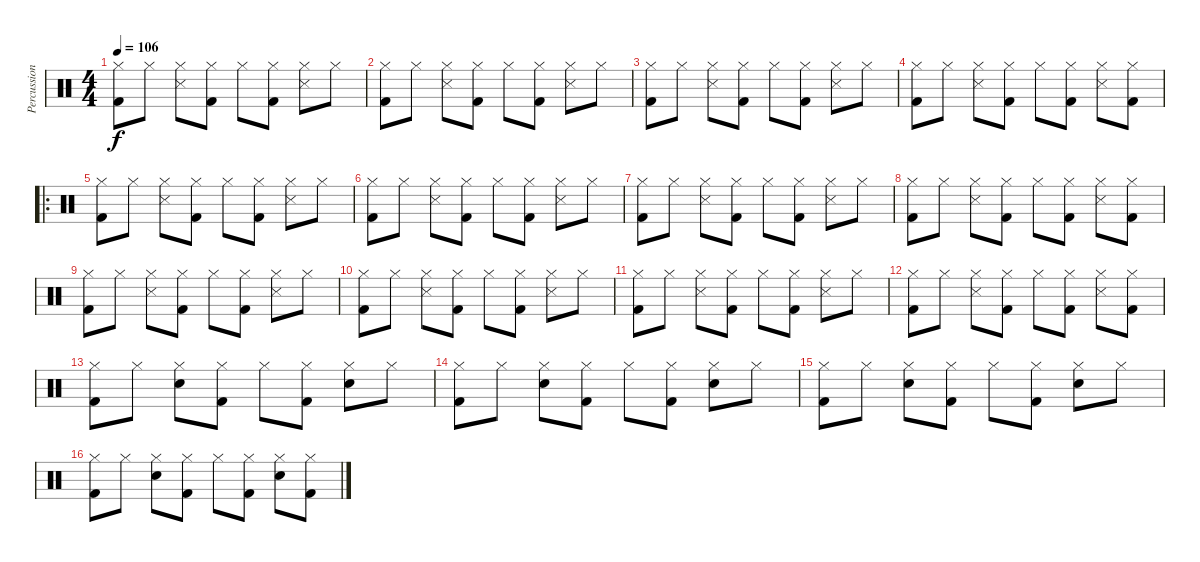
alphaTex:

\track ("Percussion" "Percussion") {instrument percussion}
\staff {score}
\articulation defaults
\ts (4 4)
\tempo 106
\clef neutral
\ks c
("Hi-Hat (closed)" "Kick (hit) 2").8{dy f} "Hi-Hat (closed)".8 ("Hi-Hat (closed)" "Snare (side stick) 3").8 ("Hi-Hat (closed)" "Kick (hit) 2").8 "Hi-Hat (closed)".8 ("Hi-Hat (closed)" "Kick (hit) 2").8 ("Hi-Hat (closed)" "Snare (side stick) 3").8 "Hi-Hat (closed)".8 |
("Hi-Hat (closed)" "Kick (hit) 2").8 "Hi-Hat (closed)".8 ("Hi-Hat (closed)" "Snare (side stick) 3").8 ("Hi-Hat (closed)" "Kick (hit) 2").8 "Hi-Hat (closed)".8 ("Hi-Hat (closed)" "Kick (hit) 2").8 ("Hi-Hat (closed)" "Snare (side stick) 3").8 "Hi-Hat (closed)".8 |
("Hi-Hat (closed)" "Kick (hit) 2").8 "Hi-Hat (closed)".8 ("Hi-Hat (closed)" "Snare (side stick) 3").8 ("Hi-Hat (closed)" "Kick (hit) 2").8 "Hi-Hat (closed)".8 ("Hi-Hat (closed)" "Kick (hit) 2").8 ("Hi-Hat (closed)" "Snare (side stick) 3").8 "Hi-Hat (closed)".8 |
("Hi-Hat (closed)" "Kick (hit) 2").8 "Hi-Hat (closed)".8 ("Hi-Hat (closed)" "Snare (side stick) 3").8 ("Hi-Hat (closed)" "Kick (hit) 2").8 "Hi-Hat (closed)".8 ("Hi-Hat (closed)" "Kick (hit) 2").8 ("Hi-Hat (closed)" "Snare (side stick) 3").8 ("Hi-Hat (closed)" "Kick (hit) 2").8 |
\ro
("Hi-Hat (closed)" "Kick (hit) 2").8 "Hi-Hat (closed)".8 ("Hi-Hat (closed)" "Snare (side stick) 3").8 ("Hi-Hat (closed)" "Kick (hit) 2").8 "Hi-Hat (closed)".8 ("Hi-Hat (closed)" "Kick (hit) 2").8 ("Hi-Hat (closed)" "Snare (side stick) 3").8 "Hi-Hat (closed)".8 |
("Hi-Hat (closed)" "Kick (hit) 2").8 "Hi-Hat (closed)".8 ("Hi-Hat (closed)" "Snare (side stick) 3").8 ("Hi-Hat (closed)" "Kick (hit) 2").8 "Hi-Hat (closed)".8 ("Hi-Hat (closed)" "Kick (hit) 2").8 ("Hi-Hat (closed)" "Snare (side stick) 3").8 "Hi-Hat (closed)".8 |
("Hi-Hat (closed)" "Kick (hit) 2").8 "Hi-Hat (closed)".8 ("Hi-Hat (closed)" "Snare (side stick) 3").8 ("Hi-Hat (closed)" "Kick (hit) 2").8 "Hi-Hat (closed)".8 ("Hi-Hat (closed)" "Kick (hit) 2").8 ("Hi-Hat (closed)" "Snare (side stick) 3").8 "Hi-Hat (closed)".8 |
("Hi-Hat (closed)" "Kick (hit) 2").8 "Hi-Hat (closed)".8 ("Hi-Hat (closed)" "Snare (side stick) 3").8 ("Hi-Hat (closed)" "Kick (hit) 2").8 "Hi-Hat (closed)".8 ("Hi-Hat (closed)" "Kick (hit) 2").8 ("Hi-Hat (closed)" "Snare (side stick) 3").8 ("Hi-Hat (closed)" "Kick (hit) 2").8 |
("Hi-Hat (closed)" "Kick (hit) 2").8 "Hi-Hat (closed)".8 ("Hi-Hat (closed)" "Snare (side stick) 3").8 ("Hi-Hat (closed)" "Kick (hit) 2").8 "Hi-Hat (closed)".8 ("Hi-Hat (closed)" "Kick (hit) 2").8 ("Hi-Hat (closed)" "Snare (side stick) 3").8 "Hi-Hat (closed)".8 |
("Hi-Hat (closed)" "Kick (hit) 2").8 "Hi-Hat (closed)".8 ("Hi-Hat (closed)" "Snare (side stick) 3").8 ("Hi-Hat (closed)" "Kick (hit) 2").8 "Hi-Hat (closed)".8 ("Hi-Hat (closed)" "Kick (hit) 2").8 ("Hi-Hat (closed)" "Snare (side stick) 3").8 "Hi-Hat (closed)".8 |
("Hi-Hat (closed)" "Kick (hit) 2").8 "Hi-Hat (closed)".8 ("Hi-Hat (closed)" "Snare (side stick) 3").8 ("Hi-Hat (closed)" "Kick (hit) 2").8 "Hi-Hat (closed)".8 ("Hi-Hat (closed)" "Kick (hit) 2").8 ("Hi-Hat (closed)" "Snare (side stick) 3").8 "Hi-Hat (closed)".8 |
("Hi-Hat (closed)" "Kick (hit) 2").8 "Hi-Hat (closed)".8 ("Hi-Hat (closed)" "Snare (side stick) 3").8 ("Hi-Hat (closed)" "Kick (hit) 2").8 "Hi-Hat (closed)".8 ("Hi-Hat (closed)" "Kick (hit) 2").8 ("Hi-Hat (closed)" "Snare (side stick) 3").8 ("Hi-Hat (closed)" "Kick (hit) 2").8 |
("Hi-Hat (closed)" "Kick (hit) 2").8 "Hi-Hat (closed)".8 ("Hi-Hat (closed)" "Snare (hit) 2").8 ("Hi-Hat (closed)" "Kick (hit) 2").8 "Hi-Hat (closed)".8 ("Hi-Hat (closed)" "Kick (hit) 2").8 ("Hi-Hat (closed)" "Snare (hit) 2").8 "Hi-Hat (closed)".8 |
("Hi-Hat (closed)" "Kick (hit) 2").8 "Hi-Hat (closed)".8 ("Hi-Hat (closed)" "Snare (hit) 2").8 ("Hi-Hat (closed)" "Kick (hit) 2").8 "Hi-Hat (closed)".8 ("Hi-Hat (closed)" "Kick (hit) 2").8 ("Hi-Hat (closed)" "Snare (hit) 2").8 "Hi-Hat (closed)".8 |
("Hi-Hat (closed)" "Kick (hit) 2").8 "Hi-Hat (closed)".8 ("Hi-Hat (closed)" "Snare (hit) 2").8 ("Hi-Hat (closed)" "Kick (hit) 2").8 "Hi-Hat (closed)".8 ("Hi-Hat (closed)" "Kick (hit) 2").8 ("Hi-Hat (closed)" "Snare (hit) 2").8 "Hi-Hat (closed)".8 |
("Hi-Hat (closed)" "Kick (hit) 2").8 "Hi-Hat (closed)".8 ("Hi-Hat (closed)" "Snare (hit) 2").8 ("Hi-Hat (closed)" "Kick (hit) 2").8 "Hi-Hat (closed)".8 ("Hi-Hat (closed)" "Kick (hit) 2").8 ("Hi-Hat (closed)" "Snare (hit) 2").8 ("Hi-Hat (closed)" "Kick (hit) 2").8
